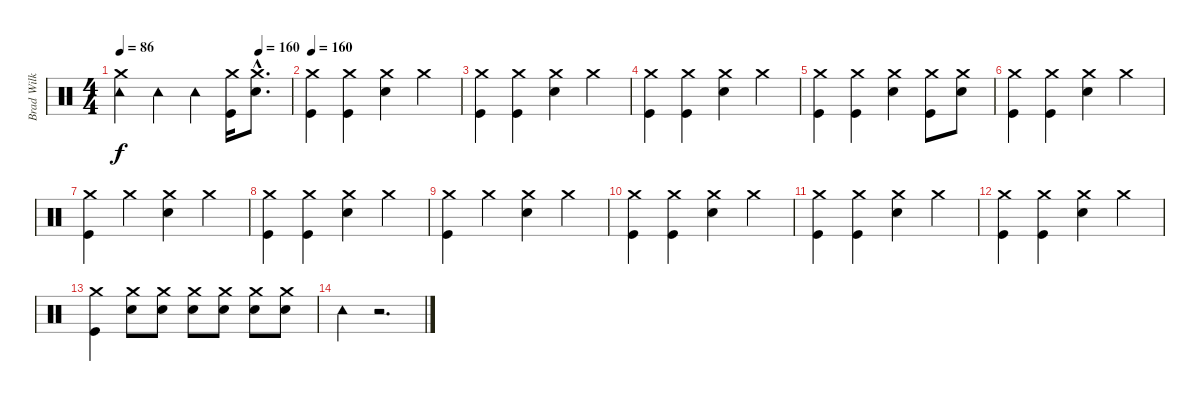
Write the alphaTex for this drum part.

\track ("Brad Wilk" "Brad Wilk") {instrument percussion}
\staff {score}
\articulation defaults
\ts (4 4)
\tempo 86
\tempo (160 0.8125)
\clef neutral
\ks c
("Crash medium (hit)" "Tambourine (hit)").4{dy f} "Tambourine (hit)".4 "Tambourine (hit)".4 ("Crash medium (hit)" "Kick (hit)").16 ("Crash medium (hit)"{hac} "Snare (hit) 2"{hac}).8{d} |
\tempo 160
("Crash medium (hit)" "Kick (hit)").4 ("Crash medium (hit)" "Kick (hit)").4 ("Crash medium (hit)" "Electric Snare (hit)").4 "Crash medium (hit)".4 |
("Crash medium (hit)" "Kick (hit)").4 ("Crash medium (hit)" "Kick (hit)").4 ("Crash medium (hit)" "Electric Snare (hit)").4 "Crash medium (hit)".4 |
("Crash medium (hit)" "Kick (hit)").4 ("Crash medium (hit)" "Kick (hit)").4 ("Crash medium (hit)" "Electric Snare (hit)").4 "Crash medium (hit)".4 |
("Crash medium (hit)" "Kick (hit)").4 ("Crash medium (hit)" "Kick (hit)").4 ("Crash medium (hit)" "Electric Snare (hit)").4 ("Crash medium (hit)" "Kick (hit)").8 ("Crash medium (hit)" "Electric Snare (hit)").8 |
("Crash medium (hit)" "Kick (hit)").4 ("Crash medium (hit)" "Kick (hit)").4 ("Crash medium (hit)" "Electric Snare (hit)").4 "Crash medium (hit)".4 |
("Crash medium (hit)" "Kick (hit)").4 "Crash medium (hit)".4 ("Crash medium (hit)" "Electric Snare (hit)").4 "Crash medium (hit)".4 |
("Crash medium (hit)" "Kick (hit)").4 ("Crash medium (hit)" "Kick (hit)").4 ("Crash medium (hit)" "Electric Snare (hit)").4 "Crash medium (hit)".4 |
("Crash medium (hit)" "Kick (hit)").4 "Crash medium (hit)".4 ("Crash medium (hit)" "Electric Snare (hit)").4 "Crash medium (hit)".4 |
("Crash medium (hit)" "Kick (hit)").4 ("Crash medium (hit)" "Kick (hit)").4 ("Crash medium (hit)" "Electric Snare (hit)").4 "Crash medium (hit)".4 |
("Crash medium (hit)" "Kick (hit)").4 ("Crash medium (hit)" "Kick (hit)").4 ("Crash medium (hit)" "Electric Snare (hit)").4 "Crash medium (hit)".4 |
("Crash medium (hit)" "Kick (hit)").4 ("Crash medium (hit)" "Kick (hit)").4 ("Crash medium (hit)" "Electric Snare (hit)").4 "Crash medium (hit)".4 |
("Crash medium (hit)" "Kick (hit)").4 ("Crash medium (hit)" "Electric Snare (hit)").8 ("Crash medium (hit)" "Electric Snare (hit)").8 ("Crash medium (hit)" "Electric Snare (hit)").8 ("Crash medium (hit)" "Electric Snare (hit)").8 ("Crash medium (hit)" "Electric Snare (hit)").8 ("Crash medium (hit)" "Electric Snare (hit)").8 |
"Tambourine (hit)".4 r.2{d}
